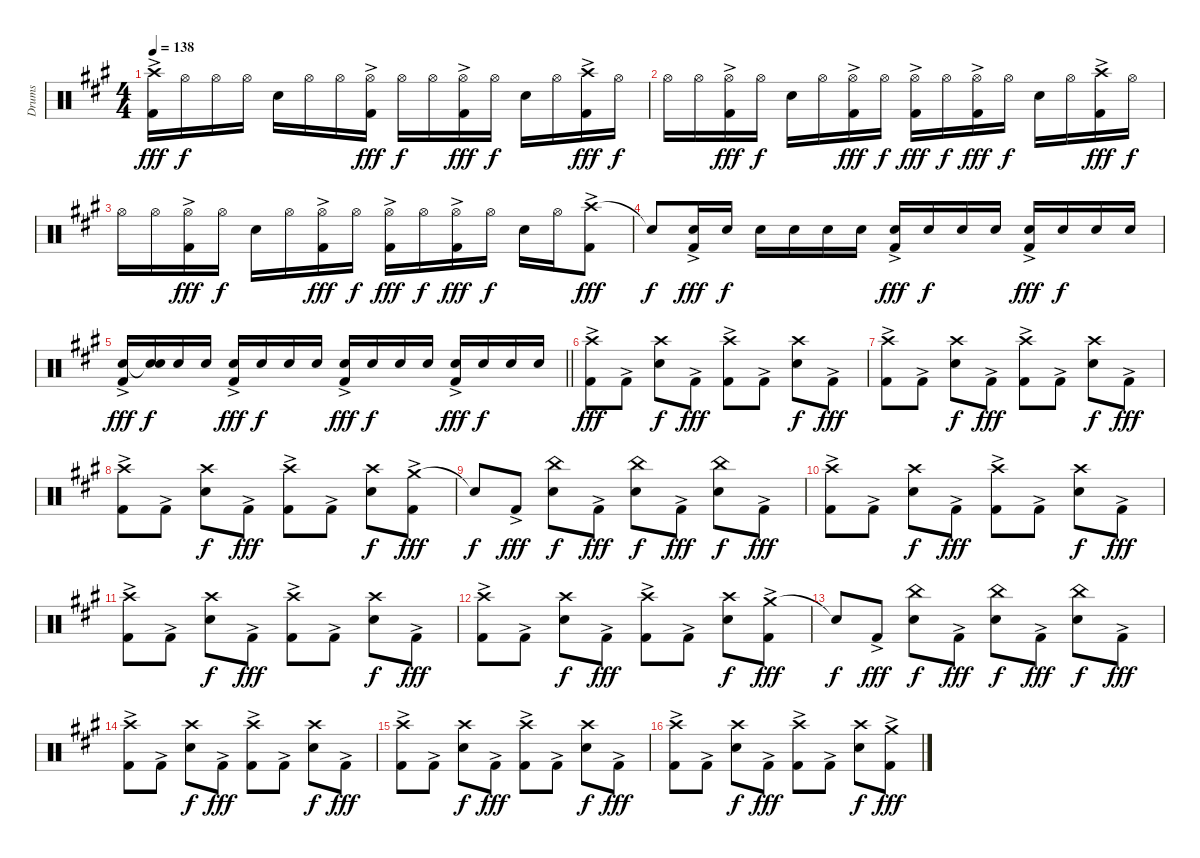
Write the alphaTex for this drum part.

\track ("Drums" "Drums") {instrument percussion}
\staff {score}
\articulation defaults
\ts (4 4)
\tempo 138
\clef neutral
\ks f#minor
("Crash high (hit)" "Kick (hit) 2"{ac}).16{dy fff} "Hi-Hat (open)".16{dy f} "Hi-Hat (open)".16 "Hi-Hat (open)".16 "Snare (hit) 2".16 "Hi-Hat (open)".16 "Hi-Hat (open)".16 ("Hi-Hat (open)" "Kick (hit) 2"{ac}).16{dy fff} "Hi-Hat (open)".16{dy f} "Hi-Hat (open)".16 ("Hi-Hat (open)" "Kick (hit) 2"{ac}).16{dy fff} "Hi-Hat (open)".16{dy f} "Snare (hit) 2".16 "Hi-Hat (open)".16 ("Crash high (hit)" "Kick (hit) 2"{ac}).16{dy fff} "Hi-Hat (open)".16{dy f} |
"Hi-Hat (open)".16 "Hi-Hat (open)".16 ("Hi-Hat (open)" "Kick (hit) 2"{ac}).16{dy fff} "Hi-Hat (open)".16{dy f} "Snare (hit) 2".16 "Hi-Hat (open)".16 ("Hi-Hat (open)" "Kick (hit) 2"{ac}).16{dy fff} "Hi-Hat (open)".16{dy f} ("Hi-Hat (open)" "Kick (hit) 2"{ac}).16{dy fff} "Hi-Hat (open)".16{dy f} ("Hi-Hat (open)" "Kick (hit) 2"{ac}).16{dy fff} "Hi-Hat (open)".16{dy f} "Snare (hit) 2".16 "Hi-Hat (open)".16 ("Crash high (hit)" "Kick (hit) 2"{ac}).16{dy fff} "Hi-Hat (open)".16{dy f} |
"Hi-Hat (open)".16 "Hi-Hat (open)".16 ("Hi-Hat (open)" "Kick (hit) 2"{ac}).16{dy fff} "Hi-Hat (open)".16{dy f} "Snare (hit) 2".16 "Hi-Hat (open)".16 ("Hi-Hat (open)" "Kick (hit) 2"{ac}).16{dy fff} "Hi-Hat (open)".16{dy f} ("Hi-Hat (open)" "Kick (hit) 2"{ac}).16{dy fff} "Hi-Hat (open)".16{dy f} ("Hi-Hat (open)" "Kick (hit) 2"{ac}).16{dy fff} "Hi-Hat (open)".16{dy f} "Snare (hit) 2".16 "Hi-Hat (open)".16 ("Crash high (hit)" "Kick (hit) 2"{ac}).8{dy fff} |
"Snare (hit)"{t}.8{dy f} ("Snare (hit) 2" "Kick (hit) 2"{ac}).16{dy fff} "Snare (hit) 2".16{dy f} "Snare (hit) 2".16 "Snare (hit) 2".16 "Snare (hit) 2".16 "Snare (hit) 2".16 ("Snare (hit) 2" "Kick (hit) 2"{ac}).16{dy fff} "Snare (hit) 2".16{dy f} "Snare (hit) 2".16 "Snare (hit) 2".16 ("Snare (hit) 2" "Kick (hit) 2"{ac}).16{dy fff} "Snare (hit) 2".16{dy f} "Snare (hit) 2".16 "Snare (hit) 2".16 |
\barLineRight lightlight
("Snare (hit) 2" "Kick (hit) 2"{ac}).16{dy fff} ("Snare (hit)"{t} "Snare (hit) 2").16{dy f} "Snare (hit) 2".16 "Snare (hit) 2".16 ("Snare (hit) 2" "Kick (hit) 2"{ac}).16{dy fff} "Snare (hit) 2".16{dy f} "Snare (hit) 2".16 "Snare (hit) 2".16 ("Snare (hit) 2" "Kick (hit) 2"{ac}).16{dy fff} "Snare (hit) 2".16{dy f} "Snare (hit) 2".16 "Snare (hit) 2".16 ("Snare (hit) 2" "Kick (hit) 2"{ac}).16{dy fff} "Snare (hit) 2".16{dy f} "Snare (hit) 2".16 "Snare (hit) 2".16 |
("Crash high (hit)" "Kick (hit) 2"{ac}).8{dy fff} "Kick (hit) 2"{ac}.8 ("Crash high (hit)" "Snare (hit) 2").8{dy f} "Kick (hit) 2"{ac}.8{dy fff} ("Crash high (hit)" "Kick (hit) 2"{ac}).8 "Kick (hit) 2"{ac}.8 ("Crash high (hit)" "Snare (hit) 2").8{dy f} "Kick (hit) 2"{ac}.8{dy fff} |
("Crash high (hit)" "Kick (hit) 2"{ac}).8 "Kick (hit) 2"{ac}.8 ("Crash high (hit)" "Snare (hit) 2").8{dy f} "Kick (hit) 2"{ac}.8{dy fff} ("Crash high (hit)" "Kick (hit) 2"{ac}).8 "Kick (hit) 2"{ac}.8 ("Crash high (hit)" "Snare (hit) 2").8{dy f} "Kick (hit) 2"{ac}.8{dy fff} |
("Crash high (hit)" "Kick (hit) 2"{ac}).8 "Kick (hit) 2"{ac}.8 ("Crash high (hit)" "Snare (hit) 2").8{dy f} "Kick (hit) 2"{ac}.8{dy fff} ("Crash high (hit)" "Kick (hit) 2"{ac}).8 "Kick (hit) 2"{ac}.8 ("Crash high (hit)" "Snare (hit) 2").8{dy f} ("Crash medium (hit)" "Kick (hit) 2"{ac}).8{dy fff} |
"Snare (hit)"{t}.8{dy f} "Kick (hit) 2"{ac}.8{dy fff} ("China (hit)" "Snare (hit) 2").8{dy f} "Kick (hit) 2"{ac}.8{dy fff} ("China (hit)" "Snare (hit) 2").8{dy f} "Kick (hit) 2"{ac}.8{dy fff} ("China (hit)" "Snare (hit) 2").8{dy f} "Kick (hit) 2"{ac}.8{dy fff} |
("Crash high (hit)" "Kick (hit) 2"{ac}).8 "Kick (hit) 2"{ac}.8 ("Crash high (hit)" "Snare (hit) 2").8{dy f} "Kick (hit) 2"{ac}.8{dy fff} ("Crash high (hit)" "Kick (hit) 2"{ac}).8 "Kick (hit) 2"{ac}.8 ("Crash high (hit)" "Snare (hit) 2").8{dy f} "Kick (hit) 2"{ac}.8{dy fff} |
("Crash high (hit)" "Kick (hit) 2"{ac}).8 "Kick (hit) 2"{ac}.8 ("Crash high (hit)" "Snare (hit) 2").8{dy f} "Kick (hit) 2"{ac}.8{dy fff} ("Crash high (hit)" "Kick (hit) 2"{ac}).8 "Kick (hit) 2"{ac}.8 ("Crash high (hit)" "Snare (hit) 2").8{dy f} "Kick (hit) 2"{ac}.8{dy fff} |
("Crash high (hit)" "Kick (hit) 2"{ac}).8 "Kick (hit) 2"{ac}.8 ("Crash high (hit)" "Snare (hit) 2").8{dy f} "Kick (hit) 2"{ac}.8{dy fff} ("Crash high (hit)" "Kick (hit) 2"{ac}).8 "Kick (hit) 2"{ac}.8 ("Crash high (hit)" "Snare (hit) 2").8{dy f} ("Crash medium (hit)" "Kick (hit) 2"{ac}).8{dy fff} |
"Snare (hit)"{t}.8{dy f} "Kick (hit) 2"{ac}.8{dy fff} ("China (hit)" "Snare (hit) 2").8{dy f} "Kick (hit) 2"{ac}.8{dy fff} ("China (hit)" "Snare (hit) 2").8{dy f} "Kick (hit) 2"{ac}.8{dy fff} ("China (hit)" "Snare (hit) 2").8{dy f} "Kick (hit) 2"{ac}.8{dy fff} |
("Crash high (hit)" "Kick (hit) 2"{ac}).8 "Kick (hit) 2"{ac}.8 ("Crash high (hit)" "Snare (hit) 2").8{dy f} "Kick (hit) 2"{ac}.8{dy fff} ("Crash high (hit)" "Kick (hit) 2"{ac}).8 "Kick (hit) 2"{ac}.8 ("Crash high (hit)" "Snare (hit) 2").8{dy f} "Kick (hit) 2"{ac}.8{dy fff} |
("Crash high (hit)" "Kick (hit) 2"{ac}).8 "Kick (hit) 2"{ac}.8 ("Crash high (hit)" "Snare (hit) 2").8{dy f} "Kick (hit) 2"{ac}.8{dy fff} ("Crash high (hit)" "Kick (hit) 2"{ac}).8 "Kick (hit) 2"{ac}.8 ("Crash high (hit)" "Snare (hit) 2").8{dy f} "Kick (hit) 2"{ac}.8{dy fff} |
("Crash high (hit)" "Kick (hit) 2"{ac}).8 "Kick (hit) 2"{ac}.8 ("Crash high (hit)" "Snare (hit) 2").8{dy f} "Kick (hit) 2"{ac}.8{dy fff} ("Crash high (hit)" "Kick (hit) 2"{ac}).8 "Kick (hit) 2"{ac}.8 ("Crash high (hit)" "Snare (hit) 2").8{dy f} ("Crash medium (hit)" "Kick (hit) 2"{ac}).8{dy fff}
